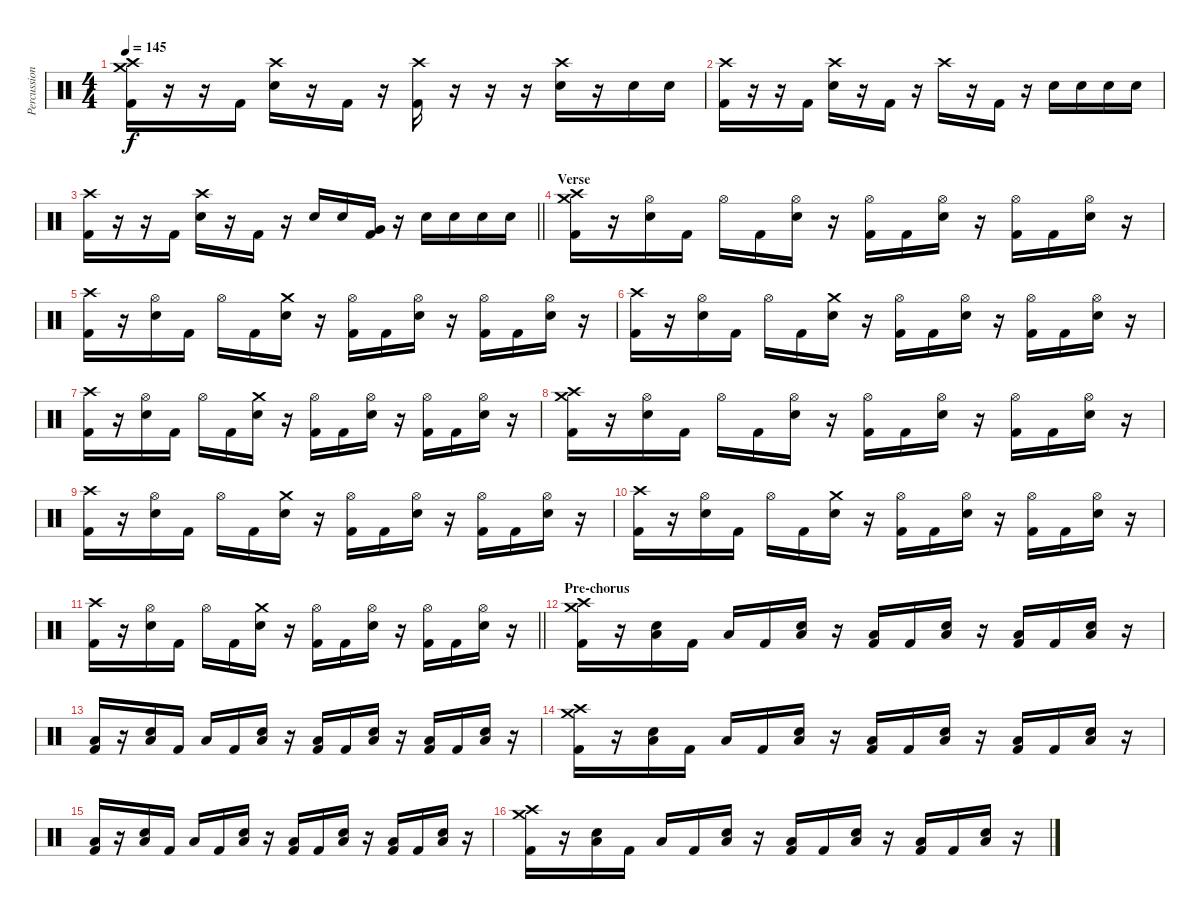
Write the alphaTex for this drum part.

\track ("Percussion" "Percussion") {instrument percussion}
\staff {score}
\articulation defaults
\ts (4 4)
\tempo 145
\clef neutral
\ks c
("Crash medium (hit)" "Crash high (hit)" "Kick (hit) 2").16{dy f} r.16 r.16 "Kick (hit) 2".16 ("Crash high (hit)" "Electric Snare (hit)").16 r.16 "Kick (hit) 2".16 r.16 ("Crash high (hit)" "Kick (hit) 2").16 r.16 r.16 r.16 ("Crash high (hit)" "Electric Snare (hit)").16 r.16 "Electric Snare (hit)".16 "Electric Snare (hit)".16 |
("Crash high (hit)" "Kick (hit) 2").16 r.16 r.16 "Kick (hit) 2".16 ("Crash high (hit)" "Electric Snare (hit)").16 r.16 "Kick (hit) 2".16 r.16 "Crash high (hit)".16 r.16 "Kick (hit) 2".16 r.16 "Electric Snare (hit)".16 "Electric Snare (hit)".16 "Electric Snare (hit)".16 "Electric Snare (hit)".16 |
\barLineRight lightlight
("Crash high (hit)" "Kick (hit) 2").16 r.16 r.16 "Kick (hit) 2".16 ("Crash high (hit)" "Electric Snare (hit)").16 r.16 "Kick (hit) 2".16 r.16 "Electric Snare (hit)".16 "Electric Snare (hit)".16 ("Very Low Tom (hit)" "Kick (hit) 2").16 r.16 "Electric Snare (hit)".16 "Electric Snare (hit)".16 "Electric Snare (hit)".16 "Electric Snare (hit)".16 |
\section ("" "Verse")
("Crash high (hit)" "Crash medium (hit)" "Kick (hit) 2").16 r.16 ("Hi-Hat (open)" "Electric Snare (hit)").16 "Kick (hit) 2".16 "Hi-Hat (open)".16 "Kick (hit) 2".16 ("Hi-Hat (open)" "Electric Snare (hit)").16 r.16 ("Hi-Hat (open)" "Kick (hit) 2").16 "Kick (hit) 2".16 ("Hi-Hat (open)" "Electric Snare (hit)").16 r.16 ("Hi-Hat (open)" "Kick (hit) 2").16 "Kick (hit) 2".16 ("Hi-Hat (open)" "Electric Snare (hit)").16 r.16 |
("Crash high (hit)" "Kick (hit) 2").16 r.16 ("Hi-Hat (open)" "Electric Snare (hit)").16 "Kick (hit) 2".16 "Hi-Hat (open)".16 "Kick (hit) 2".16 ("Crash medium (hit)" "Electric Snare (hit)").16 r.16 ("Hi-Hat (open)" "Kick (hit) 2").16 "Kick (hit) 2".16 ("Hi-Hat (open)" "Electric Snare (hit)").16 r.16 ("Hi-Hat (open)" "Kick (hit) 2").16 "Kick (hit) 2".16 ("Hi-Hat (open)" "Electric Snare (hit)").16 r.16 |
("Crash high (hit)" "Kick (hit) 2").16 r.16 ("Hi-Hat (open)" "Electric Snare (hit)").16 "Kick (hit) 2".16 "Hi-Hat (open)".16 "Kick (hit) 2".16 ("Crash medium (hit)" "Electric Snare (hit)").16 r.16 ("Hi-Hat (open)" "Kick (hit) 2").16 "Kick (hit) 2".16 ("Hi-Hat (open)" "Electric Snare (hit)").16 r.16 ("Hi-Hat (open)" "Kick (hit) 2").16 "Kick (hit) 2".16 ("Hi-Hat (open)" "Electric Snare (hit)").16 r.16 |
("Crash high (hit)" "Kick (hit) 2").16 r.16 ("Hi-Hat (open)" "Electric Snare (hit)").16 "Kick (hit) 2".16 "Hi-Hat (open)".16 "Kick (hit) 2".16 ("Crash medium (hit)" "Electric Snare (hit)").16 r.16 ("Hi-Hat (open)" "Kick (hit) 2").16 "Kick (hit) 2".16 ("Hi-Hat (open)" "Electric Snare (hit)").16 r.16 ("Hi-Hat (open)" "Kick (hit) 2").16 "Kick (hit) 2".16 ("Hi-Hat (open)" "Electric Snare (hit)").16 r.16 |
("Crash high (hit)" "Crash medium (hit)" "Kick (hit) 2").16 r.16 ("Hi-Hat (open)" "Electric Snare (hit)").16 "Kick (hit) 2".16 "Hi-Hat (open)".16 "Kick (hit) 2".16 ("Hi-Hat (open)" "Electric Snare (hit)").16 r.16 ("Hi-Hat (open)" "Kick (hit) 2").16 "Kick (hit) 2".16 ("Hi-Hat (open)" "Electric Snare (hit)").16 r.16 ("Hi-Hat (open)" "Kick (hit) 2").16 "Kick (hit) 2".16 ("Hi-Hat (open)" "Electric Snare (hit)").16 r.16 |
("Crash high (hit)" "Kick (hit) 2").16 r.16 ("Hi-Hat (open)" "Electric Snare (hit)").16 "Kick (hit) 2".16 "Hi-Hat (open)".16 "Kick (hit) 2".16 ("Crash medium (hit)" "Electric Snare (hit)").16 r.16 ("Hi-Hat (open)" "Kick (hit) 2").16 "Kick (hit) 2".16 ("Hi-Hat (open)" "Electric Snare (hit)").16 r.16 ("Hi-Hat (open)" "Kick (hit) 2").16 "Kick (hit) 2".16 ("Hi-Hat (open)" "Electric Snare (hit)").16 r.16 |
("Crash high (hit)" "Kick (hit) 2").16 r.16 ("Hi-Hat (open)" "Electric Snare (hit)").16 "Kick (hit) 2".16 "Hi-Hat (open)".16 "Kick (hit) 2".16 ("Crash medium (hit)" "Electric Snare (hit)").16 r.16 ("Hi-Hat (open)" "Kick (hit) 2").16 "Kick (hit) 2".16 ("Hi-Hat (open)" "Electric Snare (hit)").16 r.16 ("Hi-Hat (open)" "Kick (hit) 2").16 "Kick (hit) 2".16 ("Hi-Hat (open)" "Electric Snare (hit)").16 r.16 |
\barLineRight lightlight
("Crash high (hit)" "Kick (hit) 2").16 r.16 ("Hi-Hat (open)" "Electric Snare (hit)").16 "Kick (hit) 2".16 "Hi-Hat (open)".16 "Kick (hit) 2".16 ("Crash medium (hit)" "Electric Snare (hit)").16 r.16 ("Hi-Hat (open)" "Kick (hit) 2").16 "Kick (hit) 2".16 ("Hi-Hat (open)" "Electric Snare (hit)").16 r.16 ("Hi-Hat (open)" "Kick (hit) 2").16 "Kick (hit) 2".16 ("Hi-Hat (open)" "Electric Snare (hit)").16 r.16 |
\section ("" "Pre-chorus")
("Crash high (hit)" "Crash medium (hit)" "Kick (hit) 2").16 r.16 ("Electric Snare (hit)" "Low Floor Tom (hit)").16 "Kick (hit) 2".16 "Low Floor Tom (hit)".16 "Kick (hit) 2".16 ("Electric Snare (hit)" "Low Floor Tom (hit)").16 r.16 ("Low Floor Tom (hit)" "Kick (hit) 2").16 "Kick (hit) 2".16 ("Electric Snare (hit)" "Low Floor Tom (hit)").16 r.16 ("Low Floor Tom (hit)" "Kick (hit) 2").16 "Kick (hit) 2".16 ("Electric Snare (hit)" "Low Floor Tom (hit)").16 r.16 |
("Low Floor Tom (hit)" "Kick (hit) 2").16 r.16 ("Electric Snare (hit)" "Low Floor Tom (hit)").16 "Kick (hit) 2".16 "Low Floor Tom (hit)".16 "Kick (hit) 2".16 ("Electric Snare (hit)" "Low Floor Tom (hit)").16 r.16 ("Low Floor Tom (hit)" "Kick (hit) 2").16 "Kick (hit) 2".16 ("Electric Snare (hit)" "Low Floor Tom (hit)").16 r.16 ("Low Floor Tom (hit)" "Kick (hit) 2").16 "Kick (hit) 2".16 ("Electric Snare (hit)" "Low Floor Tom (hit)").16 r.16 |
("Crash high (hit)" "Crash medium (hit)" "Kick (hit) 2").16 r.16 ("Electric Snare (hit)" "Low Floor Tom (hit)").16 "Kick (hit) 2".16 "Low Floor Tom (hit)".16 "Kick (hit) 2".16 ("Electric Snare (hit)" "Low Floor Tom (hit)").16 r.16 ("Low Floor Tom (hit)" "Kick (hit) 2").16 "Kick (hit) 2".16 ("Electric Snare (hit)" "Low Floor Tom (hit)").16 r.16 ("Low Floor Tom (hit)" "Kick (hit) 2").16 "Kick (hit) 2".16 ("Electric Snare (hit)" "Low Floor Tom (hit)").16 r.16 |
("Low Floor Tom (hit)" "Kick (hit) 2").16 r.16 ("Electric Snare (hit)" "Low Floor Tom (hit)").16 "Kick (hit) 2".16 "Low Floor Tom (hit)".16 "Kick (hit) 2".16 ("Electric Snare (hit)" "Low Floor Tom (hit)").16 r.16 ("Low Floor Tom (hit)" "Kick (hit) 2").16 "Kick (hit) 2".16 ("Electric Snare (hit)" "Low Floor Tom (hit)").16 r.16 ("Low Floor Tom (hit)" "Kick (hit) 2").16 "Kick (hit) 2".16 ("Electric Snare (hit)" "Low Floor Tom (hit)").16 r.16 |
("Crash high (hit)" "Crash medium (hit)" "Kick (hit) 2").16 r.16 ("Electric Snare (hit)" "Low Floor Tom (hit)").16 "Kick (hit) 2".16 "Low Floor Tom (hit)".16 "Kick (hit) 2".16 ("Electric Snare (hit)" "Low Floor Tom (hit)").16 r.16 ("Low Floor Tom (hit)" "Kick (hit) 2").16 "Kick (hit) 2".16 ("Electric Snare (hit)" "Low Floor Tom (hit)").16 r.16 ("Low Floor Tom (hit)" "Kick (hit) 2").16 "Kick (hit) 2".16 ("Electric Snare (hit)" "Low Floor Tom (hit)").16 r.16
